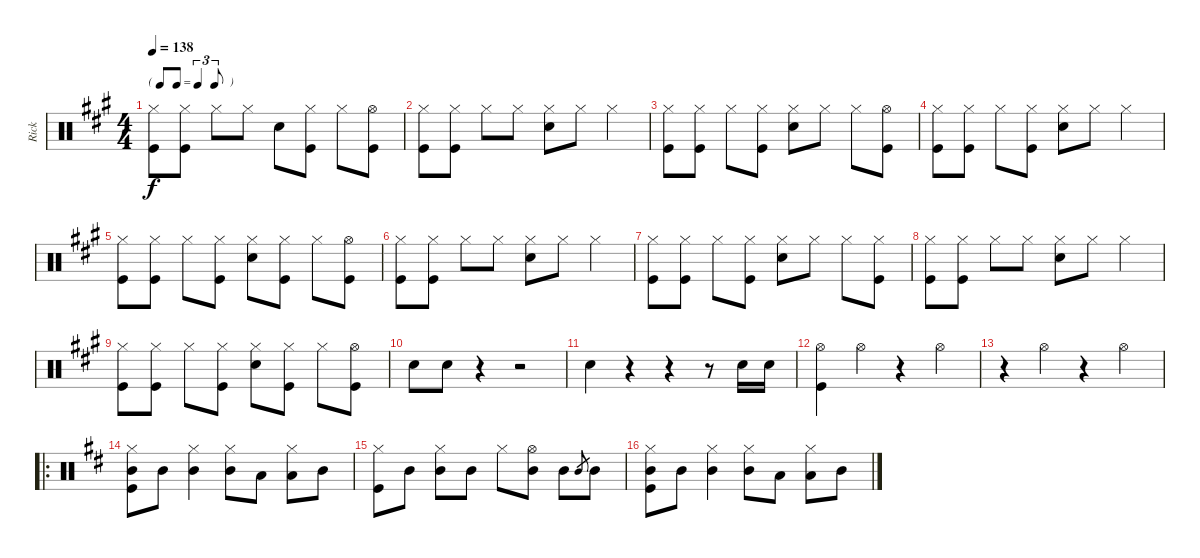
\track ("Rick" "Rick") {instrument percussion}
\staff {score}
\articulation defaults
\ts (4 4)
\tf triplet8th
\tempo 138
\clef neutral
\ks a
("Hi-Hat (closed)" "Kick (hit)").8{dy f} ("Hi-Hat (closed)" "Kick (hit)").8 "Hi-Hat (closed)".8 "Hi-Hat (closed)".8 "Snare (hit) 2".8 ("Hi-Hat (closed)" "Kick (hit)").8 "Hi-Hat (closed)".8 ("Hi-Hat (open)" "Kick (hit)").8 |
("Hi-Hat (closed)" "Kick (hit)").8 ("Hi-Hat (closed)" "Kick (hit)").8 "Hi-Hat (closed)".8 "Hi-Hat (closed)".8 ("Hi-Hat (closed)" "Snare (hit) 2").8 "Hi-Hat (closed)".8 "Hi-Hat (closed)".4 |
("Hi-Hat (closed)" "Kick (hit)").8 ("Hi-Hat (closed)" "Kick (hit)").8 "Hi-Hat (closed)".8 ("Hi-Hat (closed)" "Kick (hit)").8 ("Hi-Hat (closed)" "Snare (hit) 2").8 "Hi-Hat (closed)".8 "Hi-Hat (closed)".8 ("Hi-Hat (open)" "Kick (hit)").8 |
("Hi-Hat (closed)" "Kick (hit)").8 ("Hi-Hat (closed)" "Kick (hit)").8 "Hi-Hat (closed)".8 ("Hi-Hat (closed)" "Kick (hit)").8 ("Hi-Hat (closed)" "Snare (hit) 2").8 "Hi-Hat (closed)".8 "Hi-Hat (closed)".4 |
("Hi-Hat (closed)" "Kick (hit)").8 ("Hi-Hat (closed)" "Kick (hit)").8 "Hi-Hat (closed)".8 ("Hi-Hat (closed)" "Kick (hit)").8 ("Hi-Hat (closed)" "Snare (hit) 2").8 ("Hi-Hat (closed)" "Kick (hit)").8 "Hi-Hat (closed)".8 ("Hi-Hat (open)" "Kick (hit)").8 |
("Hi-Hat (closed)" "Kick (hit)").8 ("Hi-Hat (closed)" "Kick (hit)").8 "Hi-Hat (closed)".8 "Hi-Hat (closed)".8 ("Hi-Hat (closed)" "Snare (hit) 2").8 "Hi-Hat (closed)".8 "Hi-Hat (closed)".4 |
("Hi-Hat (closed)" "Kick (hit)").8 ("Hi-Hat (closed)" "Kick (hit)").8 "Hi-Hat (closed)".8 ("Hi-Hat (closed)" "Kick (hit)").8 ("Hi-Hat (closed)" "Snare (hit) 2").8 "Hi-Hat (closed)".8 "Hi-Hat (closed)".8 ("Hi-Hat (closed)" "Kick (hit)").8 |
("Hi-Hat (closed)" "Kick (hit)").8 ("Hi-Hat (closed)" "Kick (hit)").8 "Hi-Hat (closed)".8 "Hi-Hat (closed)".8 ("Hi-Hat (closed)" "Snare (hit) 2").8 "Hi-Hat (closed)".8 "Hi-Hat (closed)".4 |
("Hi-Hat (closed)" "Kick (hit)").8 ("Hi-Hat (closed)" "Kick (hit)").8 "Hi-Hat (closed)".8 ("Hi-Hat (closed)" "Kick (hit)").8 ("Hi-Hat (closed)" "Snare (hit) 2").8 ("Hi-Hat (closed)" "Kick (hit)").8 "Hi-Hat (closed)".8 ("Hi-Hat (open)" "Kick (hit)").8 |
"Snare (hit) 2".8 "Snare (hit) 2".8 r.4 r.2 |
"Snare (hit) 2".4 r.4 r.4 r.8 "Snare (hit) 2".16 "Snare (hit) 2".16 |
("Hi-Hat (open)" "Kick (hit)").4 "Hi-Hat (open)".4 r.4 "Hi-Hat (open)".4 |
r.4 "Hi-Hat (open)".4 r.4 "Hi-Hat (open)".4 |
\ro
\ks d
("Hi-Hat (closed)" "Mid Tom (hit)" "Kick (hit)").8 "Mid Tom (hit)".8 ("Hi-Hat (closed)" "Mid Tom (hit)").4 ("Hi-Hat (closed)" "Mid Tom (hit)").8 "Low Tom (hit)".8 ("Hi-Hat (closed)" "Low Tom (hit)").8 "Mid Tom (hit)".8 |
("Hi-Hat (closed)" "Kick (hit)").8 "Mid Tom (hit)".8 ("Hi-Hat (closed)" "Mid Tom (hit)").8 "Mid Tom (hit)".8 "Hi-Hat (closed)".8 ("Hi-Hat (open)" "Mid Tom (hit)").8 "Mid Tom (hit)".8 "Mid Tom (hit)".8{gr} "Mid Tom (hit)".8 |
("Hi-Hat (closed)" "Mid Tom (hit)" "Kick (hit)").8 "Mid Tom (hit)".8 ("Hi-Hat (closed)" "Mid Tom (hit)").4 ("Hi-Hat (closed)" "Mid Tom (hit)").8 "Low Tom (hit)".8 ("Hi-Hat (closed)" "Low Tom (hit)").8 "Mid Tom (hit)".8
